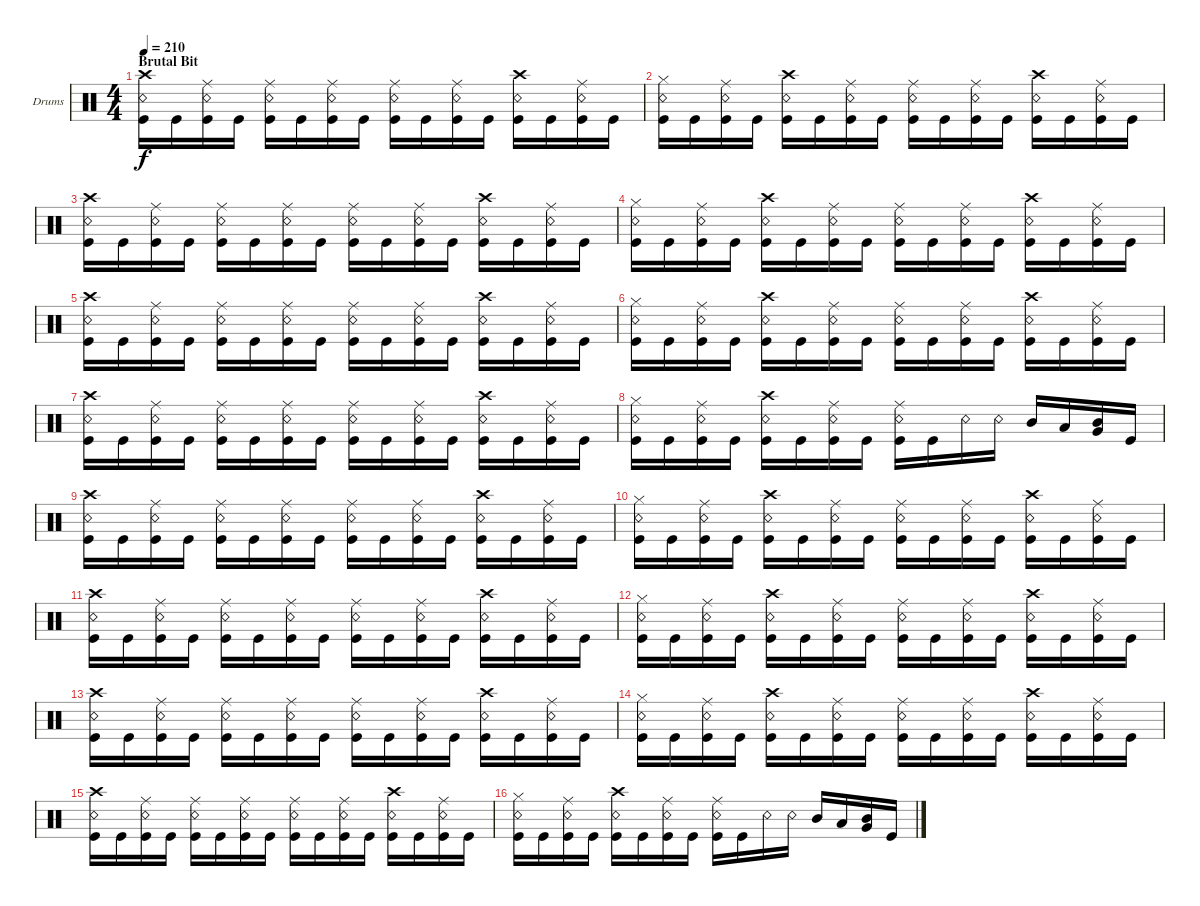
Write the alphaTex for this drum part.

\defaultSystemsLayout 4
\bracketExtendMode groupsimilarinstruments
\firstSystemTrackNameOrientation horizontal
\otherSystemsTrackNameOrientation horizontal
\track ("Drums" "Drums") {instrument percussion}
\staff {score}
\articulation defaults
\ts (4 4)
\section ("" "Brutal Bit")
\tempo 210
\clef neutral
\ks c
("Kick (hit)" "Snare (rim shot)" "Crash high (hit)").16{dy f} "Kick (hit)".16 ("Kick (hit)" "Snare (rim shot)" "Ride (middle)").16 "Kick (hit)".16 ("Kick (hit)" "Snare (rim shot)" "Ride (middle)").16 "Kick (hit)".16 ("Kick (hit)" "Snare (rim shot)" "Ride (middle)").16 "Kick (hit)".16 ("Kick (hit)" "Snare (rim shot)" "Ride (middle)").16 "Kick (hit)".16 ("Kick (hit)" "Snare (rim shot)" "Ride (middle)").16 "Kick (hit)".16 ("Kick (hit)" "Snare (rim shot)" "Crash high (hit)").16 "Kick (hit)".16 ("Kick (hit)" "Snare (rim shot)" "Ride (middle)").16 "Kick (hit)".16 |
("Kick (hit)" "Snare (rim shot)" "Hi-Hat (closed)").16 "Kick (hit)".16 ("Kick (hit)" "Snare (rim shot)" "Ride (middle)").16 "Kick (hit)".16 ("Kick (hit)" "Snare (rim shot)" "Crash high (hit)").16 "Kick (hit)".16 ("Kick (hit)" "Snare (rim shot)" "Ride (middle)").16 "Kick (hit)".16 ("Kick (hit)" "Snare (rim shot)" "Ride (middle)").16 "Kick (hit)".16 ("Kick (hit)" "Snare (rim shot)" "Ride (middle)").16 "Kick (hit)".16 ("Kick (hit)" "Snare (rim shot)" "Crash high (hit)").16 "Kick (hit)".16 ("Kick (hit)" "Snare (rim shot)" "Ride (middle)").16 "Kick (hit)".16 |
("Kick (hit)" "Snare (rim shot)" "Crash high (hit)").16 "Kick (hit)".16 ("Kick (hit)" "Snare (rim shot)" "Ride (middle)").16 "Kick (hit)".16 ("Kick (hit)" "Snare (rim shot)" "Ride (middle)").16 "Kick (hit)".16 ("Kick (hit)" "Snare (rim shot)" "Ride (middle)").16 "Kick (hit)".16 ("Kick (hit)" "Snare (rim shot)" "Ride (middle)").16 "Kick (hit)".16 ("Kick (hit)" "Snare (rim shot)" "Ride (middle)").16 "Kick (hit)".16 ("Kick (hit)" "Snare (rim shot)" "Crash high (hit)").16 "Kick (hit)".16 ("Kick (hit)" "Snare (rim shot)" "Ride (middle)").16 "Kick (hit)".16 |
("Kick (hit)" "Snare (rim shot)" "Hi-Hat (closed)").16 "Kick (hit)".16 ("Kick (hit)" "Snare (rim shot)" "Ride (middle)").16 "Kick (hit)".16 ("Kick (hit)" "Snare (rim shot)" "Crash high (hit)").16 "Kick (hit)".16 ("Kick (hit)" "Snare (rim shot)" "Ride (middle)").16 "Kick (hit)".16 ("Kick (hit)" "Snare (rim shot)" "Ride (middle)").16 "Kick (hit)".16 ("Kick (hit)" "Snare (rim shot)" "Ride (middle)").16 "Kick (hit)".16 ("Kick (hit)" "Snare (rim shot)" "Crash high (hit)").16 "Kick (hit)".16 ("Kick (hit)" "Snare (rim shot)" "Ride (middle)").16 "Kick (hit)".16 |
("Kick (hit)" "Snare (rim shot)" "Crash high (hit)").16 "Kick (hit)".16 ("Kick (hit)" "Snare (rim shot)" "Ride (middle)").16 "Kick (hit)".16 ("Kick (hit)" "Snare (rim shot)" "Ride (middle)").16 "Kick (hit)".16 ("Kick (hit)" "Snare (rim shot)" "Ride (middle)").16 "Kick (hit)".16 ("Kick (hit)" "Snare (rim shot)" "Ride (middle)").16 "Kick (hit)".16 ("Kick (hit)" "Snare (rim shot)" "Ride (middle)").16 "Kick (hit)".16 ("Kick (hit)" "Snare (rim shot)" "Crash high (hit)").16 "Kick (hit)".16 ("Kick (hit)" "Snare (rim shot)" "Ride (middle)").16 "Kick (hit)".16 |
("Kick (hit)" "Snare (rim shot)" "Hi-Hat (closed)").16 "Kick (hit)".16 ("Kick (hit)" "Snare (rim shot)" "Ride (middle)").16 "Kick (hit)".16 ("Kick (hit)" "Snare (rim shot)" "Crash high (hit)").16 "Kick (hit)".16 ("Kick (hit)" "Snare (rim shot)" "Ride (middle)").16 "Kick (hit)".16 ("Kick (hit)" "Snare (rim shot)" "Ride (middle)").16 "Kick (hit)".16 ("Kick (hit)" "Snare (rim shot)" "Ride (middle)").16 "Kick (hit)".16 ("Kick (hit)" "Snare (rim shot)" "Crash high (hit)").16 "Kick (hit)".16 ("Kick (hit)" "Snare (rim shot)" "Ride (middle)").16 "Kick (hit)".16 |
("Kick (hit)" "Snare (rim shot)" "Crash high (hit)").16 "Kick (hit)".16 ("Kick (hit)" "Snare (rim shot)" "Ride (middle)").16 "Kick (hit)".16 ("Kick (hit)" "Snare (rim shot)" "Ride (middle)").16 "Kick (hit)".16 ("Kick (hit)" "Snare (rim shot)" "Ride (middle)").16 "Kick (hit)".16 ("Kick (hit)" "Snare (rim shot)" "Ride (middle)").16 "Kick (hit)".16 ("Kick (hit)" "Snare (rim shot)" "Ride (middle)").16 "Kick (hit)".16 ("Kick (hit)" "Snare (rim shot)" "Crash high (hit)").16 "Kick (hit)".16 ("Kick (hit)" "Snare (rim shot)" "Ride (middle)").16 "Kick (hit)".16 |
("Kick (hit)" "Snare (rim shot)" "Hi-Hat (closed)").16 "Kick (hit)".16 ("Kick (hit)" "Snare (rim shot)" "Ride (middle)").16 "Kick (hit)".16 ("Kick (hit)" "Snare (rim shot)" "Crash high (hit)").16 "Kick (hit)".16 ("Kick (hit)" "Snare (rim shot)" "Ride (middle)").16 "Kick (hit)".16 ("Kick (hit)" "Snare (rim shot)" "Ride (middle)").16 "Kick (hit)".16 "Snare (rim shot)".16 "Snare (rim shot)".16 "Mid Tom (hit)".16 "Low Tom (hit)".16 ("Very Low Tom (hit)" "Mid Tom (hit)").16 "Kick (hit)".16 |
("Kick (hit)" "Snare (rim shot)" "Crash high (hit)").16 "Kick (hit)".16 ("Kick (hit)" "Snare (rim shot)" "Ride (middle)").16 "Kick (hit)".16 ("Kick (hit)" "Snare (rim shot)" "Ride (middle)").16 "Kick (hit)".16 ("Kick (hit)" "Snare (rim shot)" "Ride (middle)").16 "Kick (hit)".16 ("Kick (hit)" "Snare (rim shot)" "Ride (middle)").16 "Kick (hit)".16 ("Kick (hit)" "Snare (rim shot)" "Ride (middle)").16 "Kick (hit)".16 ("Kick (hit)" "Snare (rim shot)" "Crash high (hit)").16 "Kick (hit)".16 ("Kick (hit)" "Snare (rim shot)" "Ride (middle)").16 "Kick (hit)".16 |
("Kick (hit)" "Snare (rim shot)" "Hi-Hat (closed)").16 "Kick (hit)".16 ("Kick (hit)" "Snare (rim shot)" "Ride (middle)").16 "Kick (hit)".16 ("Kick (hit)" "Snare (rim shot)" "Crash high (hit)").16 "Kick (hit)".16 ("Kick (hit)" "Snare (rim shot)" "Ride (middle)").16 "Kick (hit)".16 ("Kick (hit)" "Snare (rim shot)" "Ride (middle)").16 "Kick (hit)".16 ("Kick (hit)" "Snare (rim shot)" "Ride (middle)").16 "Kick (hit)".16 ("Kick (hit)" "Snare (rim shot)" "Crash high (hit)").16 "Kick (hit)".16 ("Kick (hit)" "Snare (rim shot)" "Ride (middle)").16 "Kick (hit)".16 |
("Kick (hit)" "Snare (rim shot)" "Crash high (hit)").16 "Kick (hit)".16 ("Kick (hit)" "Snare (rim shot)" "Ride (middle)").16 "Kick (hit)".16 ("Kick (hit)" "Snare (rim shot)" "Ride (middle)").16 "Kick (hit)".16 ("Kick (hit)" "Snare (rim shot)" "Ride (middle)").16 "Kick (hit)".16 ("Kick (hit)" "Snare (rim shot)" "Ride (middle)").16 "Kick (hit)".16 ("Kick (hit)" "Snare (rim shot)" "Ride (middle)").16 "Kick (hit)".16 ("Kick (hit)" "Snare (rim shot)" "Crash high (hit)").16 "Kick (hit)".16 ("Kick (hit)" "Snare (rim shot)" "Ride (middle)").16 "Kick (hit)".16 |
("Kick (hit)" "Snare (rim shot)" "Hi-Hat (closed)").16 "Kick (hit)".16 ("Kick (hit)" "Snare (rim shot)" "Ride (middle)").16 "Kick (hit)".16 ("Kick (hit)" "Snare (rim shot)" "Crash high (hit)").16 "Kick (hit)".16 ("Kick (hit)" "Snare (rim shot)" "Ride (middle)").16 "Kick (hit)".16 ("Kick (hit)" "Snare (rim shot)" "Ride (middle)").16 "Kick (hit)".16 ("Kick (hit)" "Snare (rim shot)" "Ride (middle)").16 "Kick (hit)".16 ("Kick (hit)" "Snare (rim shot)" "Crash high (hit)").16 "Kick (hit)".16 ("Kick (hit)" "Snare (rim shot)" "Ride (middle)").16 "Kick (hit)".16 |
("Kick (hit)" "Snare (rim shot)" "Crash high (hit)").16 "Kick (hit)".16 ("Kick (hit)" "Snare (rim shot)" "Ride (middle)").16 "Kick (hit)".16 ("Kick (hit)" "Snare (rim shot)" "Ride (middle)").16 "Kick (hit)".16 ("Kick (hit)" "Snare (rim shot)" "Ride (middle)").16 "Kick (hit)".16 ("Kick (hit)" "Snare (rim shot)" "Ride (middle)").16 "Kick (hit)".16 ("Kick (hit)" "Snare (rim shot)" "Ride (middle)").16 "Kick (hit)".16 ("Kick (hit)" "Snare (rim shot)" "Crash high (hit)").16 "Kick (hit)".16 ("Kick (hit)" "Snare (rim shot)" "Ride (middle)").16 "Kick (hit)".16 |
("Kick (hit)" "Snare (rim shot)" "Hi-Hat (closed)").16 "Kick (hit)".16 ("Kick (hit)" "Snare (rim shot)" "Ride (middle)").16 "Kick (hit)".16 ("Kick (hit)" "Snare (rim shot)" "Crash high (hit)").16 "Kick (hit)".16 ("Kick (hit)" "Snare (rim shot)" "Ride (middle)").16 "Kick (hit)".16 ("Kick (hit)" "Snare (rim shot)" "Ride (middle)").16 "Kick (hit)".16 ("Kick (hit)" "Snare (rim shot)" "Ride (middle)").16 "Kick (hit)".16 ("Kick (hit)" "Snare (rim shot)" "Crash high (hit)").16 "Kick (hit)".16 ("Kick (hit)" "Snare (rim shot)" "Ride (middle)").16 "Kick (hit)".16 |
("Kick (hit)" "Snare (rim shot)" "Crash high (hit)").16 "Kick (hit)".16 ("Kick (hit)" "Snare (rim shot)" "Ride (middle)").16 "Kick (hit)".16 ("Kick (hit)" "Snare (rim shot)" "Ride (middle)").16 "Kick (hit)".16 ("Kick (hit)" "Snare (rim shot)" "Ride (middle)").16 "Kick (hit)".16 ("Kick (hit)" "Snare (rim shot)" "Ride (middle)").16 "Kick (hit)".16 ("Kick (hit)" "Snare (rim shot)" "Ride (middle)").16 "Kick (hit)".16 ("Kick (hit)" "Snare (rim shot)" "Crash high (hit)").16 "Kick (hit)".16 ("Kick (hit)" "Snare (rim shot)" "Ride (middle)").16 "Kick (hit)".16 |
("Kick (hit)" "Snare (rim shot)" "Hi-Hat (closed)").16 "Kick (hit)".16 ("Kick (hit)" "Snare (rim shot)" "Ride (middle)").16 "Kick (hit)".16 ("Kick (hit)" "Snare (rim shot)" "Crash high (hit)").16 "Kick (hit)".16 ("Kick (hit)" "Snare (rim shot)" "Ride (middle)").16 "Kick (hit)".16 ("Kick (hit)" "Snare (rim shot)" "Ride (middle)").16 "Kick (hit)".16 "Snare (rim shot)".16 "Snare (rim shot)".16 "Mid Tom (hit)".16 "Low Tom (hit)".16 ("Very Low Tom (hit)" "Mid Tom (hit)").16 "Kick (hit)".16
